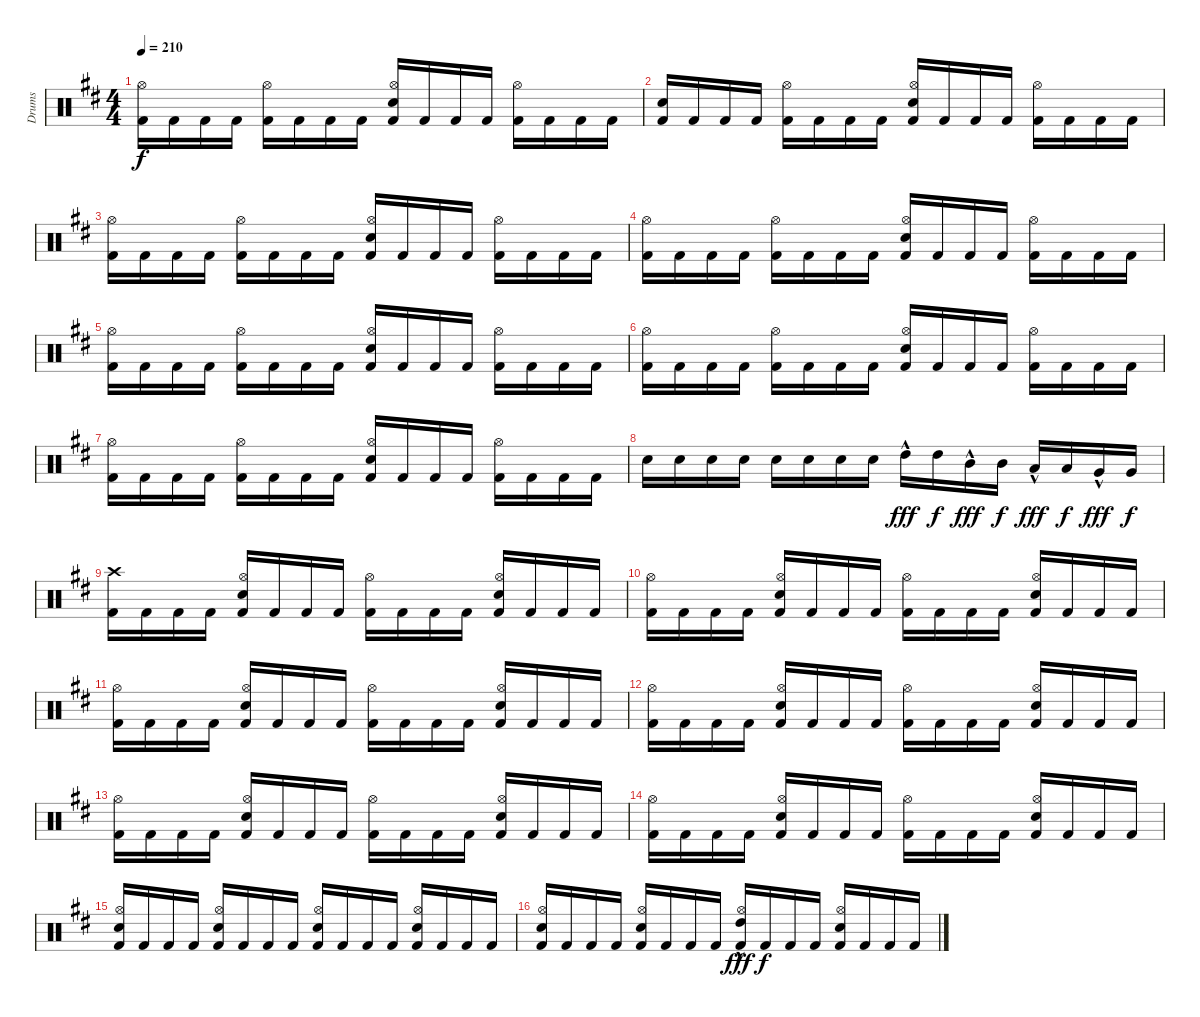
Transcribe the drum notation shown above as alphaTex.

\track ("Drums" "Drums") {instrument percussion}
\staff {score}
\articulation defaults
\ts (4 4)
\tempo 210
\clef neutral
\ks bminor
("Kick (hit) 2" "Hi-Hat (open)").16{dy f} "Kick (hit) 2".16 "Kick (hit) 2".16 "Kick (hit) 2".16 ("Kick (hit) 2" "Hi-Hat (open)").16 "Kick (hit) 2".16 "Kick (hit) 2".16 "Kick (hit) 2".16 ("Kick (hit) 2" "Electric Snare (hit)" "Hi-Hat (open)").16 "Kick (hit) 2".16 "Kick (hit) 2".16 "Kick (hit) 2".16 ("Kick (hit) 2" "Hi-Hat (open)").16 "Kick (hit) 2".16 "Kick (hit) 2".16 "Kick (hit) 2".16 |
("Kick (hit) 2" "Electric Snare (hit)").16 "Kick (hit) 2".16 "Kick (hit) 2".16 "Kick (hit) 2".16 ("Kick (hit) 2" "Hi-Hat (open)").16 "Kick (hit) 2".16 "Kick (hit) 2".16 "Kick (hit) 2".16 ("Kick (hit) 2" "Electric Snare (hit)" "Hi-Hat (open)").16 "Kick (hit) 2".16 "Kick (hit) 2".16 "Kick (hit) 2".16 ("Kick (hit) 2" "Hi-Hat (open)").16 "Kick (hit) 2".16 "Kick (hit) 2".16 "Kick (hit) 2".16 |
("Kick (hit) 2" "Hi-Hat (open)").16 "Kick (hit) 2".16 "Kick (hit) 2".16 "Kick (hit) 2".16 ("Kick (hit) 2" "Hi-Hat (open)").16 "Kick (hit) 2".16 "Kick (hit) 2".16 "Kick (hit) 2".16 ("Kick (hit) 2" "Electric Snare (hit)" "Hi-Hat (open)").16 "Kick (hit) 2".16 "Kick (hit) 2".16 "Kick (hit) 2".16 ("Kick (hit) 2" "Hi-Hat (open)").16 "Kick (hit) 2".16 "Kick (hit) 2".16 "Kick (hit) 2".16 |
("Kick (hit) 2" "Hi-Hat (open)").16 "Kick (hit) 2".16 "Kick (hit) 2".16 "Kick (hit) 2".16 ("Kick (hit) 2" "Hi-Hat (open)").16 "Kick (hit) 2".16 "Kick (hit) 2".16 "Kick (hit) 2".16 ("Kick (hit) 2" "Electric Snare (hit)" "Hi-Hat (open)").16 "Kick (hit) 2".16 "Kick (hit) 2".16 "Kick (hit) 2".16 ("Kick (hit) 2" "Hi-Hat (open)").16 "Kick (hit) 2".16 "Kick (hit) 2".16 "Kick (hit) 2".16 |
("Kick (hit) 2" "Hi-Hat (open)").16 "Kick (hit) 2".16 "Kick (hit) 2".16 "Kick (hit) 2".16 ("Kick (hit) 2" "Hi-Hat (open)").16 "Kick (hit) 2".16 "Kick (hit) 2".16 "Kick (hit) 2".16 ("Kick (hit) 2" "Electric Snare (hit)" "Hi-Hat (open)").16 "Kick (hit) 2".16 "Kick (hit) 2".16 "Kick (hit) 2".16 ("Kick (hit) 2" "Hi-Hat (open)").16 "Kick (hit) 2".16 "Kick (hit) 2".16 "Kick (hit) 2".16 |
("Kick (hit) 2" "Hi-Hat (open)").16 "Kick (hit) 2".16 "Kick (hit) 2".16 "Kick (hit) 2".16 ("Kick (hit) 2" "Hi-Hat (open)").16 "Kick (hit) 2".16 "Kick (hit) 2".16 "Kick (hit) 2".16 ("Kick (hit) 2" "Electric Snare (hit)" "Hi-Hat (open)").16 "Kick (hit) 2".16 "Kick (hit) 2".16 "Kick (hit) 2".16 ("Kick (hit) 2" "Hi-Hat (open)").16 "Kick (hit) 2".16 "Kick (hit) 2".16 "Kick (hit) 2".16 |
("Kick (hit) 2" "Hi-Hat (open)").16 "Kick (hit) 2".16 "Kick (hit) 2".16 "Kick (hit) 2".16 ("Kick (hit) 2" "Hi-Hat (open)").16 "Kick (hit) 2".16 "Kick (hit) 2".16 "Kick (hit) 2".16 ("Kick (hit) 2" "Electric Snare (hit)" "Hi-Hat (open)").16 "Kick (hit) 2".16 "Kick (hit) 2".16 "Kick (hit) 2".16 ("Kick (hit) 2" "Hi-Hat (open)").16 "Kick (hit) 2".16 "Kick (hit) 2".16 "Kick (hit) 2".16 |
"Electric Snare (hit)".16 "Electric Snare (hit)".16 "Electric Snare (hit)".16 "Electric Snare (hit)".16 "Electric Snare (hit)".16 "Electric Snare (hit)".16 "Electric Snare (hit)".16 "Electric Snare (hit)".16 "High Tom (hit)"{hac}.16{dy fff} "High Tom (hit)".16{dy f} "Mid Tom (hit)"{hac}.16{dy fff} "Mid Tom (hit)".16{dy f} "Low Tom (hit)"{hac}.16{dy fff} "Low Tom (hit)".16{dy f} "Very Low Tom (hit)"{hac}.16{dy fff} "Very Low Tom (hit)".16{dy f} |
("Kick (hit) 2" "Crash high (hit)").16 "Kick (hit) 2".16 "Kick (hit) 2".16 "Kick (hit) 2".16 ("Kick (hit) 2" "Electric Snare (hit)" "Hi-Hat (open)").16 "Kick (hit) 2".16 "Kick (hit) 2".16 "Kick (hit) 2".16 ("Kick (hit) 2" "Hi-Hat (open)").16 "Kick (hit) 2".16 "Kick (hit) 2".16 "Kick (hit) 2".16 ("Kick (hit) 2" "Electric Snare (hit)" "Hi-Hat (open)").16 "Kick (hit) 2".16 "Kick (hit) 2".16 "Kick (hit) 2".16 |
("Kick (hit) 2" "Hi-Hat (open)").16 "Kick (hit) 2".16 "Kick (hit) 2".16 "Kick (hit) 2".16 ("Kick (hit) 2" "Electric Snare (hit)" "Hi-Hat (open)").16 "Kick (hit) 2".16 "Kick (hit) 2".16 "Kick (hit) 2".16 ("Kick (hit) 2" "Hi-Hat (open)").16 "Kick (hit) 2".16 "Kick (hit) 2".16 "Kick (hit) 2".16 ("Kick (hit) 2" "Electric Snare (hit)" "Hi-Hat (open)").16 "Kick (hit) 2".16 "Kick (hit) 2".16 "Kick (hit) 2".16 |
("Kick (hit) 2" "Hi-Hat (open)").16 "Kick (hit) 2".16 "Kick (hit) 2".16 "Kick (hit) 2".16 ("Kick (hit) 2" "Electric Snare (hit)" "Hi-Hat (open)").16 "Kick (hit) 2".16 "Kick (hit) 2".16 "Kick (hit) 2".16 ("Kick (hit) 2" "Hi-Hat (open)").16 "Kick (hit) 2".16 "Kick (hit) 2".16 "Kick (hit) 2".16 ("Kick (hit) 2" "Electric Snare (hit)" "Hi-Hat (open)").16 "Kick (hit) 2".16 "Kick (hit) 2".16 "Kick (hit) 2".16 |
("Kick (hit) 2" "Hi-Hat (open)").16 "Kick (hit) 2".16 "Kick (hit) 2".16 "Kick (hit) 2".16 ("Kick (hit) 2" "Electric Snare (hit)" "Hi-Hat (open)").16 "Kick (hit) 2".16 "Kick (hit) 2".16 "Kick (hit) 2".16 ("Kick (hit) 2" "Hi-Hat (open)").16 "Kick (hit) 2".16 "Kick (hit) 2".16 "Kick (hit) 2".16 ("Kick (hit) 2" "Electric Snare (hit)" "Hi-Hat (open)").16 "Kick (hit) 2".16 "Kick (hit) 2".16 "Kick (hit) 2".16 |
("Kick (hit) 2" "Hi-Hat (open)").16 "Kick (hit) 2".16 "Kick (hit) 2".16 "Kick (hit) 2".16 ("Kick (hit) 2" "Electric Snare (hit)" "Hi-Hat (open)").16 "Kick (hit) 2".16 "Kick (hit) 2".16 "Kick (hit) 2".16 ("Kick (hit) 2" "Hi-Hat (open)").16 "Kick (hit) 2".16 "Kick (hit) 2".16 "Kick (hit) 2".16 ("Kick (hit) 2" "Electric Snare (hit)" "Hi-Hat (open)").16 "Kick (hit) 2".16 "Kick (hit) 2".16 "Kick (hit) 2".16 |
("Kick (hit) 2" "Hi-Hat (open)").16 "Kick (hit) 2".16 "Kick (hit) 2".16 "Kick (hit) 2".16 ("Kick (hit) 2" "Electric Snare (hit)" "Hi-Hat (open)").16 "Kick (hit) 2".16 "Kick (hit) 2".16 "Kick (hit) 2".16 ("Kick (hit) 2" "Hi-Hat (open)").16 "Kick (hit) 2".16 "Kick (hit) 2".16 "Kick (hit) 2".16 ("Kick (hit) 2" "Electric Snare (hit)" "Hi-Hat (open)").16 "Kick (hit) 2".16 "Kick (hit) 2".16 "Kick (hit) 2".16 |
("Kick (hit) 2" "Electric Snare (hit)" "Hi-Hat (open)").16 "Kick (hit) 2".16 "Kick (hit) 2".16 "Kick (hit) 2".16 ("Kick (hit) 2" "Electric Snare (hit)" "Hi-Hat (open)").16 "Kick (hit) 2".16 "Kick (hit) 2".16 "Kick (hit) 2".16 ("Kick (hit) 2" "Electric Snare (hit)" "Hi-Hat (open)").16 "Kick (hit) 2".16 "Kick (hit) 2".16 "Kick (hit) 2".16 ("Kick (hit) 2" "Electric Snare (hit)" "Hi-Hat (open)").16 "Kick (hit) 2".16 "Kick (hit) 2".16 "Kick (hit) 2".16 |
("Kick (hit) 2" "Electric Snare (hit)" "Hi-Hat (open)").16 "Kick (hit) 2".16 "Kick (hit) 2".16 "Kick (hit) 2".16 ("Kick (hit) 2" "Electric Snare (hit)" "Hi-Hat (open)").16 "Kick (hit) 2".16 "Kick (hit) 2".16 "Kick (hit) 2".16 ("Kick (hit) 2" "Hi-Hat (open)" "High Tom (hit)"{hac}).16{dy fff} "Kick (hit) 2".16{dy f} "Kick (hit) 2".16 "Kick (hit) 2".16 ("Kick (hit) 2" "Electric Snare (hit)" "Hi-Hat (open)").16 "Kick (hit) 2".16 "Kick (hit) 2".16 "Kick (hit) 2".16
